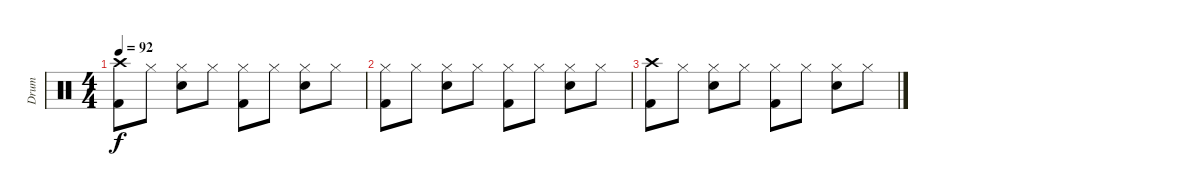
\track ("Drum" "Drum") {instrument percussion}
\staff {score}
\articulation defaults
\ts (4 4)
\tempo 92
\clef neutral
\ks c
("Crash high (hit)" "Kick (hit) 2").8{dy f volume 2} "Hi-Hat (closed)".8 ("Hi-Hat (closed)" "Snare (hit) 2").8 "Hi-Hat (closed)".8 ("Hi-Hat (closed)" "Kick (hit) 2").8 "Hi-Hat (closed)".8 ("Hi-Hat (closed)" "Snare (hit) 2").8 "Hi-Hat (closed)".8 |
("Hi-Hat (closed)" "Kick (hit) 2").8 "Hi-Hat (closed)".8 ("Hi-Hat (closed)" "Snare (hit) 2").8 "Hi-Hat (closed)".8 ("Hi-Hat (closed)" "Kick (hit) 2").8 "Hi-Hat (closed)".8 ("Hi-Hat (closed)" "Snare (hit) 2").8 "Hi-Hat (closed)".8 |
("Crash high (hit)" "Kick (hit) 2").8{volume 0} "Hi-Hat (closed)".8 ("Hi-Hat (closed)" "Snare (hit) 2").8 "Hi-Hat (closed)".8 ("Hi-Hat (closed)" "Kick (hit) 2").8 "Hi-Hat (closed)".8 ("Hi-Hat (closed)" "Snare (hit) 2").8 "Hi-Hat (closed)".8
